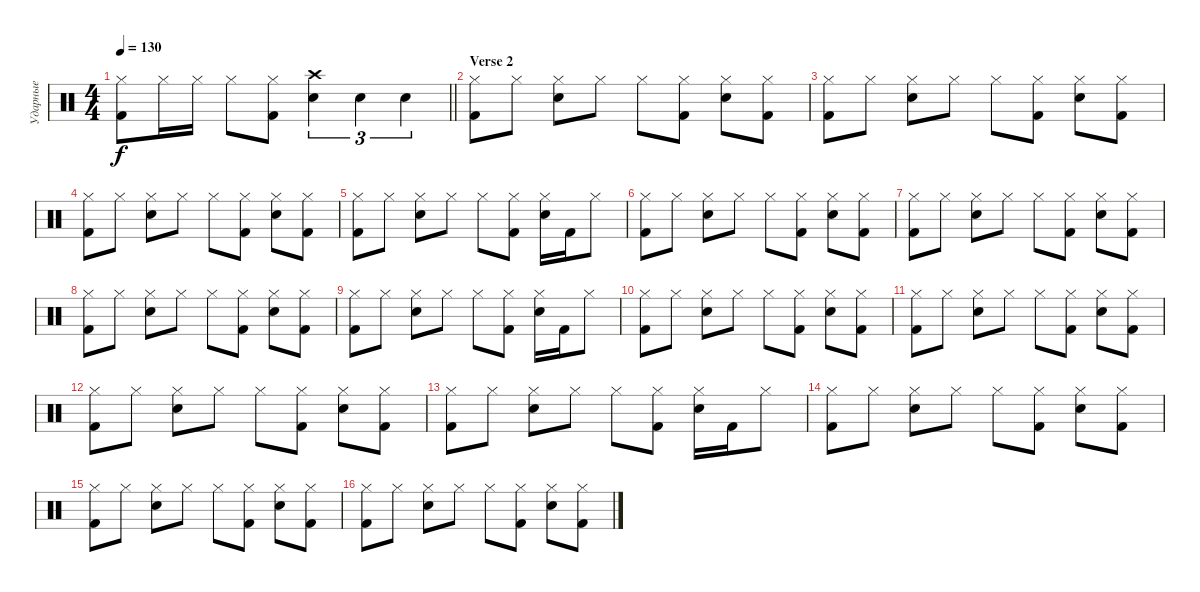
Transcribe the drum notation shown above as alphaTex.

\track ("Ударные" "Ударные") {instrument percussion}
\staff {score}
\articulation defaults
\ts (4 4)
\tempo 130
\clef neutral
\barLineRight lightlight
\ks c
("Hi-Hat (closed)" "Kick (hit) 2").8{dy f} "Hi-Hat (closed)".16 "Hi-Hat (closed)".16 "Hi-Hat (closed)".8 ("Hi-Hat (closed)" "Kick (hit) 2").8 ("Crash high (hit)" "Snare (hit) 2").4{tu (3 2)} "Snare (hit) 2".4{tu (3 2)} "Snare (hit) 2".4{tu (3 2)} |
\section ("" "Verse 2")
("Hi-Hat (closed)" "Kick (hit) 2").8 "Hi-Hat (closed)".8 ("Hi-Hat (closed)" "Snare (hit) 2").8 "Hi-Hat (closed)".8 "Hi-Hat (closed)".8 ("Hi-Hat (closed)" "Kick (hit) 2").8 ("Hi-Hat (closed)" "Snare (hit) 2").8 ("Hi-Hat (closed)" "Kick (hit) 2").8 |
("Hi-Hat (closed)" "Kick (hit) 2").8 "Hi-Hat (closed)".8 ("Hi-Hat (closed)" "Snare (hit) 2").8 "Hi-Hat (closed)".8 "Hi-Hat (closed)".8 ("Hi-Hat (closed)" "Kick (hit) 2").8 ("Hi-Hat (closed)" "Snare (hit) 2").8 ("Hi-Hat (closed)" "Kick (hit) 2").8 |
("Hi-Hat (closed)" "Kick (hit) 2").8 "Hi-Hat (closed)".8 ("Hi-Hat (closed)" "Snare (hit) 2").8 "Hi-Hat (closed)".8 "Hi-Hat (closed)".8 ("Hi-Hat (closed)" "Kick (hit) 2").8 ("Hi-Hat (closed)" "Snare (hit) 2").8 ("Hi-Hat (closed)" "Kick (hit) 2").8 |
("Hi-Hat (closed)" "Kick (hit) 2").8 "Hi-Hat (closed)".8 ("Hi-Hat (closed)" "Snare (hit) 2").8 "Hi-Hat (closed)".8 "Hi-Hat (closed)".8 ("Hi-Hat (closed)" "Kick (hit) 2").8 ("Hi-Hat (closed)" "Snare (hit) 2").16 "Kick (hit) 2".16 "Hi-Hat (closed)".8 |
("Hi-Hat (closed)" "Kick (hit) 2").8 "Hi-Hat (closed)".8 ("Hi-Hat (closed)" "Snare (hit) 2").8 "Hi-Hat (closed)".8 "Hi-Hat (closed)".8 ("Hi-Hat (closed)" "Kick (hit) 2").8 ("Hi-Hat (closed)" "Snare (hit) 2").8 ("Hi-Hat (closed)" "Kick (hit) 2").8 |
("Hi-Hat (closed)" "Kick (hit) 2").8 "Hi-Hat (closed)".8 ("Hi-Hat (closed)" "Snare (hit) 2").8 "Hi-Hat (closed)".8 "Hi-Hat (closed)".8 ("Hi-Hat (closed)" "Kick (hit) 2").8 ("Hi-Hat (closed)" "Snare (hit) 2").8 ("Hi-Hat (closed)" "Kick (hit) 2").8 |
("Hi-Hat (closed)" "Kick (hit) 2").8 "Hi-Hat (closed)".8 ("Hi-Hat (closed)" "Snare (hit) 2").8 "Hi-Hat (closed)".8 "Hi-Hat (closed)".8 ("Hi-Hat (closed)" "Kick (hit) 2").8 ("Hi-Hat (closed)" "Snare (hit) 2").8 ("Hi-Hat (closed)" "Kick (hit) 2").8 |
("Hi-Hat (closed)" "Kick (hit) 2").8 "Hi-Hat (closed)".8 ("Hi-Hat (closed)" "Snare (hit) 2").8 "Hi-Hat (closed)".8 "Hi-Hat (closed)".8 ("Hi-Hat (closed)" "Kick (hit) 2").8 ("Hi-Hat (closed)" "Snare (hit) 2").16 "Kick (hit) 2".16 "Hi-Hat (closed)".8 |
("Hi-Hat (closed)" "Kick (hit) 2").8 "Hi-Hat (closed)".8 ("Hi-Hat (closed)" "Snare (hit) 2").8 "Hi-Hat (closed)".8 "Hi-Hat (closed)".8 ("Hi-Hat (closed)" "Kick (hit) 2").8 ("Hi-Hat (closed)" "Snare (hit) 2").8 ("Hi-Hat (closed)" "Kick (hit) 2").8 |
("Hi-Hat (closed)" "Kick (hit) 2").8 "Hi-Hat (closed)".8 ("Hi-Hat (closed)" "Snare (hit) 2").8 "Hi-Hat (closed)".8 "Hi-Hat (closed)".8 ("Hi-Hat (closed)" "Kick (hit) 2").8 ("Hi-Hat (closed)" "Snare (hit) 2").8 ("Hi-Hat (closed)" "Kick (hit) 2").8 |
("Hi-Hat (closed)" "Kick (hit) 2").8 "Hi-Hat (closed)".8 ("Hi-Hat (closed)" "Snare (hit) 2").8 "Hi-Hat (closed)".8 "Hi-Hat (closed)".8 ("Hi-Hat (closed)" "Kick (hit) 2").8 ("Hi-Hat (closed)" "Snare (hit) 2").8 ("Hi-Hat (closed)" "Kick (hit) 2").8 |
("Hi-Hat (closed)" "Kick (hit) 2").8 "Hi-Hat (closed)".8 ("Hi-Hat (closed)" "Snare (hit) 2").8 "Hi-Hat (closed)".8 "Hi-Hat (closed)".8 ("Hi-Hat (closed)" "Kick (hit) 2").8 ("Hi-Hat (closed)" "Snare (hit) 2").16 "Kick (hit) 2".16 "Hi-Hat (closed)".8 |
("Hi-Hat (closed)" "Kick (hit) 2").8 "Hi-Hat (closed)".8 ("Hi-Hat (closed)" "Snare (hit) 2").8 "Hi-Hat (closed)".8 "Hi-Hat (closed)".8 ("Hi-Hat (closed)" "Kick (hit) 2").8 ("Hi-Hat (closed)" "Snare (hit) 2").8 ("Hi-Hat (closed)" "Kick (hit) 2").8 |
("Hi-Hat (closed)" "Kick (hit) 2").8 "Hi-Hat (closed)".8 ("Hi-Hat (closed)" "Snare (hit) 2").8 "Hi-Hat (closed)".8 "Hi-Hat (closed)".8 ("Hi-Hat (closed)" "Kick (hit) 2").8 ("Hi-Hat (closed)" "Snare (hit) 2").8 ("Hi-Hat (closed)" "Kick (hit) 2").8 |
("Hi-Hat (closed)" "Kick (hit) 2").8 "Hi-Hat (closed)".8 ("Hi-Hat (closed)" "Snare (hit) 2").8 "Hi-Hat (closed)".8 "Hi-Hat (closed)".8 ("Hi-Hat (closed)" "Kick (hit) 2").8 ("Hi-Hat (closed)" "Snare (hit) 2").8 ("Hi-Hat (closed)" "Kick (hit) 2").8
